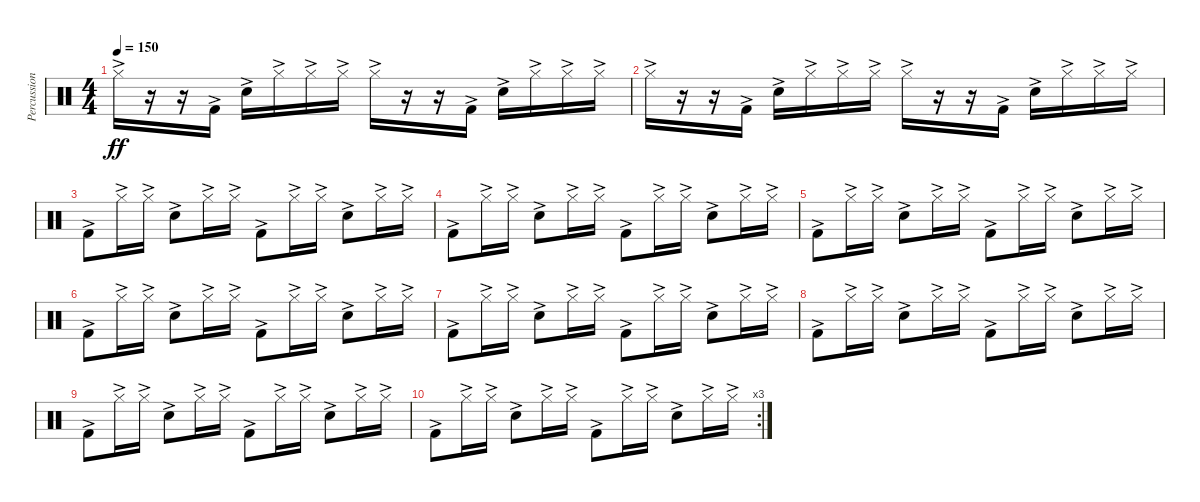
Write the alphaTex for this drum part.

\track ("Percussion" "Percussion") {instrument percussion bank 163}
\staff {score}
\articulation defaults
\ts (4 4)
\tempo 150
\clef neutral
\ks c "Hi-Hat (closed)"{ac}.16{dy ff}
r.16 r.16 "Kick (hit) 2"{ac}.16 "Snare (hit) 2"{ac}.16 "Hi-Hat (closed)"{ac}.16 "Hi-Hat (closed)"{ac}.16 "Hi-Hat (closed)"{ac}.16 "Hi-Hat (closed)"{ac}.16 r.16 r.16 "Kick (hit) 2"{ac}.16 "Snare (hit) 2"{ac}.16 "Hi-Hat (closed)"{ac}.16 "Hi-Hat (closed)"{ac}.16 "Hi-Hat (closed)"{ac}.16 |
"Hi-Hat (closed)"{ac}.16 r.16 r.16 "Kick (hit) 2"{ac}.16 "Snare (hit) 2"{ac}.16 "Hi-Hat (closed)"{ac}.16 "Hi-Hat (closed)"{ac}.16 "Hi-Hat (closed)"{ac}.16 "Hi-Hat (closed)"{ac}.16 r.16 r.16 "Kick (hit) 2"{ac}.16 "Snare (hit) 2"{ac}.16 "Hi-Hat (closed)"{ac}.16 "Hi-Hat (closed)"{ac}.16 "Hi-Hat (closed)"{ac}.16 |
"Kick (hit) 2"{ac}.8 "Hi-Hat (closed)"{ac}.16 "Hi-Hat (closed)"{ac}.16 "Snare (hit) 2"{ac}.8 "Hi-Hat (closed)"{ac}.16 "Hi-Hat (closed)"{ac}.16 "Kick (hit) 2"{ac}.8 "Hi-Hat (closed)"{ac}.16 "Hi-Hat (closed)"{ac}.16 "Snare (hit) 2"{ac}.8 "Hi-Hat (closed)"{ac}.16 "Hi-Hat (closed)"{ac}.16 |
"Kick (hit) 2"{ac}.8 "Hi-Hat (closed)"{ac}.16 "Hi-Hat (closed)"{ac}.16 "Snare (hit) 2"{ac}.8 "Hi-Hat (closed)"{ac}.16 "Hi-Hat (closed)"{ac}.16 "Kick (hit) 2"{ac}.8 "Hi-Hat (closed)"{ac}.16 "Hi-Hat (closed)"{ac}.16 "Snare (hit) 2"{ac}.8 "Hi-Hat (closed)"{ac}.16 "Hi-Hat (closed)"{ac}.16 |
"Kick (hit) 2"{ac}.8 "Hi-Hat (closed)"{ac}.16 "Hi-Hat (closed)"{ac}.16 "Snare (hit) 2"{ac}.8 "Hi-Hat (closed)"{ac}.16 "Hi-Hat (closed)"{ac}.16 "Kick (hit) 2"{ac}.8 "Hi-Hat (closed)"{ac}.16 "Hi-Hat (closed)"{ac}.16 "Snare (hit) 2"{ac}.8 "Hi-Hat (closed)"{ac}.16 "Hi-Hat (closed)"{ac}.16 |
"Kick (hit) 2"{ac}.8 "Hi-Hat (closed)"{ac}.16 "Hi-Hat (closed)"{ac}.16 "Snare (hit) 2"{ac}.8 "Hi-Hat (closed)"{ac}.16 "Hi-Hat (closed)"{ac}.16 "Kick (hit) 2"{ac}.8 "Hi-Hat (closed)"{ac}.16 "Hi-Hat (closed)"{ac}.16 "Snare (hit) 2"{ac}.8 "Hi-Hat (closed)"{ac}.16 "Hi-Hat (closed)"{ac}.16 |
"Kick (hit) 2"{ac}.8 "Hi-Hat (closed)"{ac}.16 "Hi-Hat (closed)"{ac}.16 "Snare (hit) 2"{ac}.8 "Hi-Hat (closed)"{ac}.16 "Hi-Hat (closed)"{ac}.16 "Kick (hit) 2"{ac}.8 "Hi-Hat (closed)"{ac}.16 "Hi-Hat (closed)"{ac}.16 "Snare (hit) 2"{ac}.8 "Hi-Hat (closed)"{ac}.16 "Hi-Hat (closed)"{ac}.16 |
"Kick (hit) 2"{ac}.8 "Hi-Hat (closed)"{ac}.16 "Hi-Hat (closed)"{ac}.16 "Snare (hit) 2"{ac}.8 "Hi-Hat (closed)"{ac}.16 "Hi-Hat (closed)"{ac}.16 "Kick (hit) 2"{ac}.8 "Hi-Hat (closed)"{ac}.16 "Hi-Hat (closed)"{ac}.16 "Snare (hit) 2"{ac}.8 "Hi-Hat (closed)"{ac}.16 "Hi-Hat (closed)"{ac}.16 |
"Kick (hit) 2"{ac}.8 "Hi-Hat (closed)"{ac}.16 "Hi-Hat (closed)"{ac}.16 "Snare (hit) 2"{ac}.8 "Hi-Hat (closed)"{ac}.16 "Hi-Hat (closed)"{ac}.16 "Kick (hit) 2"{ac}.8 "Hi-Hat (closed)"{ac}.16 "Hi-Hat (closed)"{ac}.16 "Snare (hit) 2"{ac}.8 "Hi-Hat (closed)"{ac}.16 "Hi-Hat (closed)"{ac}.16 |
\rc 3 "Kick (hit) 2"{ac}.8 "Hi-Hat (closed)"{ac}.16 "Hi-Hat (closed)"{ac}.16 "Snare (hit) 2"{ac}.8 "Hi-Hat (closed)"{ac}.16 "Hi-Hat (closed)"{ac}.16 "Kick (hit) 2"{ac}.8 "Hi-Hat (closed)"{ac}.16 "Hi-Hat (closed)"{ac}.16 "Snare (hit) 2"{ac}.8 "Hi-Hat (closed)"{ac}.16 "Hi-Hat (closed)"{ac}.16
